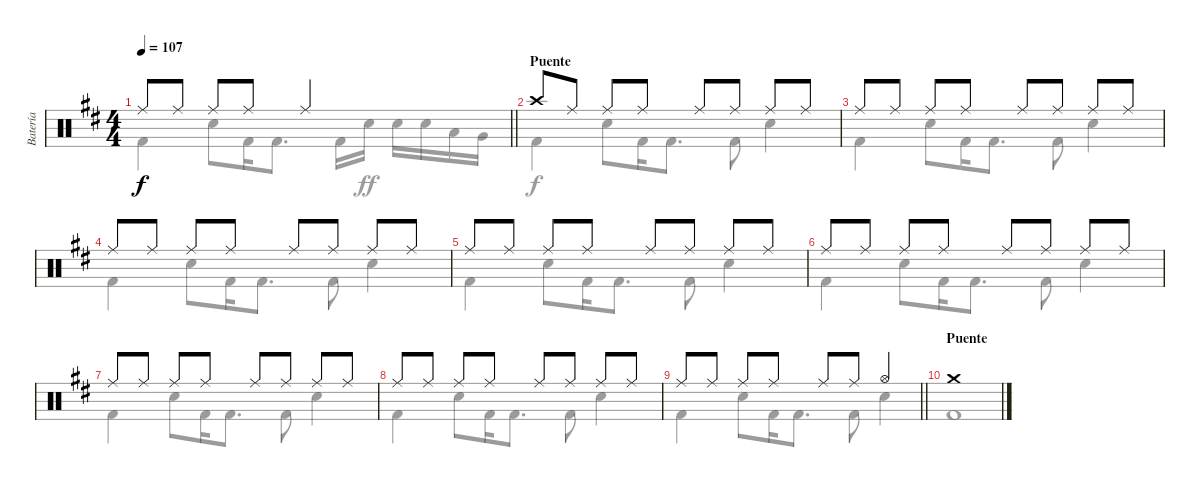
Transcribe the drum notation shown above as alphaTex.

\track ("Batería" "Batería") {instrument percussion}
\staff {score}
\articulation defaults
\voice
\ts (4 4)
\tempo 107
\clef neutral
\barLineRight lightlight
\ks d "Ride (middle)".8{dy f} "Ride (middle)".8 "Ride (middle)".8 "Ride (middle)".8 "Ride (middle)".2
|
\section ("" "Puente")
"Crash high (hit)".8 "Ride (middle)".8 "Ride (middle)".8 "Ride (middle)".8 "Ride (middle)".8 "Ride (middle)".8 "Ride (middle)".8 "Ride (middle)".8 |
"Ride (middle)".8 "Ride (middle)".8 "Ride (middle)".8 "Ride (middle)".8 "Ride (middle)".8 "Ride (middle)".8 "Ride (middle)".8 "Ride (middle)".8 |
"Ride (middle)".8 "Ride (middle)".8 "Ride (middle)".8 "Ride (middle)".8 "Ride (middle)".8 "Ride (middle)".8 "Ride (middle)".8 "Ride (middle)".8 |
"Ride (middle)".8 "Ride (middle)".8 "Ride (middle)".8 "Ride (middle)".8 "Ride (middle)".8 "Ride (middle)".8 "Ride (middle)".8 "Ride (middle)".8 |
"Ride (middle)".8 "Ride (middle)".8 "Ride (middle)".8 "Ride (middle)".8 "Ride (middle)".8 "Ride (middle)".8 "Ride (middle)".8 "Ride (middle)".8 |
"Ride (middle)".8 "Ride (middle)".8 "Ride (middle)".8 "Ride (middle)".8 "Ride (middle)".8 "Ride (middle)".8 "Ride (middle)".8 "Ride (middle)".8 |
"Ride (middle)".8 "Ride (middle)".8 "Ride (middle)".8 "Ride (middle)".8 "Ride (middle)".8 "Ride (middle)".8 "Ride (middle)".8 "Ride (middle)".8 |
\barLineRight lightlight "Ride (middle)".8 "Ride (middle)".8 "Ride (middle)".8 "Ride (middle)".8 "Ride (middle)".8 "Ride (middle)".8 "Hi-Hat (open)".4
|
\section ("" "Puente")
"Crash medium (hit)".1 |
|
|
|
|
|
\voice
\clef neutral
\ottava regular
\simile none
\barLineRight lightlight
\ks d "Kick (hit) 2".4{dy f} "Snare (hit) 2".8 "Kick (hit) 2".16 "Kick (hit) 2".8{d} "Kick (hit) 2".16 "Snare (hit) 2".16{dy ff} "Snare (hit) 2".16 "Snare (hit) 2".16 "Low Tom (hit)".16 "Very Low Tom (hit)".16
|
"Kick (hit) 2".4{dy f} "Snare (hit) 2".8 "Kick (hit) 2".16 "Kick (hit) 2".8{d} "Kick (hit) 2".8 "Snare (hit) 2".4 |
"Kick (hit) 2".4 "Snare (hit) 2".8 "Kick (hit) 2".16 "Kick (hit) 2".8{d} "Kick (hit) 2".8 "Snare (hit) 2".4 |
"Kick (hit) 2".4 "Snare (hit) 2".8 "Kick (hit) 2".16 "Kick (hit) 2".8{d} "Kick (hit) 2".8 "Snare (hit) 2".4 |
"Kick (hit) 2".4 "Snare (hit) 2".8 "Kick (hit) 2".16 "Kick (hit) 2".8{d} "Kick (hit) 2".8 "Snare (hit) 2".4 |
"Kick (hit) 2".4 "Snare (hit) 2".8 "Kick (hit) 2".16 "Kick (hit) 2".8{d} "Kick (hit) 2".8 "Snare (hit) 2".4 |
"Kick (hit) 2".4 "Snare (hit) 2".8 "Kick (hit) 2".16 "Kick (hit) 2".8{d} "Kick (hit) 2".8 "Snare (hit) 2".4 |
"Kick (hit) 2".4 "Snare (hit) 2".8 "Kick (hit) 2".16 "Kick (hit) 2".8{d} "Kick (hit) 2".8 "Snare (hit) 2".4 |
\barLineRight lightlight "Kick (hit) 2".4 "Snare (hit) 2".8 "Kick (hit) 2".16 "Kick (hit) 2".8{d} "Kick (hit) 2".8 "Snare (hit) 2".4
|
"Kick (hit) 2".1 |
|
|
|
|
|
